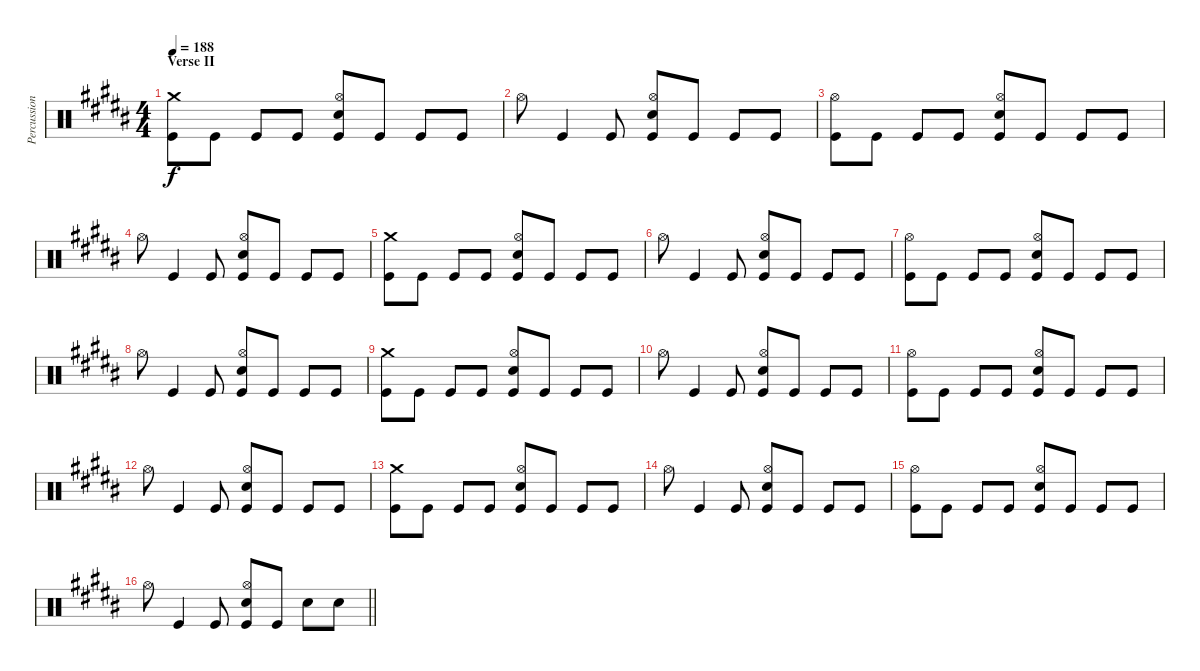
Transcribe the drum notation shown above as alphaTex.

\track ("Percussion" "Percussion") {instrument percussion}
\staff {score}
\articulation defaults
\ts (4 4)
\section ("" "Verse II")
\tempo 188
\clef neutral
\ks b
("Crash medium (hit)" "Kick (hit)").8{dy f} "Kick (hit)".8 "Kick (hit)".8 "Kick (hit)".8 ("Hi-Hat (open)" "Electric Snare (hit)" "Kick (hit)").8 "Kick (hit)".8 "Kick (hit)".8 "Kick (hit)".8 |
"Hi-Hat (open)".8 "Kick (hit)".4 "Kick (hit)".8 ("Hi-Hat (open)" "Electric Snare (hit)" "Kick (hit)").8 "Kick (hit)".8 "Kick (hit)".8 "Kick (hit)".8 |
("Hi-Hat (open)" "Kick (hit)").8 "Kick (hit)".8 "Kick (hit)".8 "Kick (hit)".8 ("Hi-Hat (open)" "Electric Snare (hit)" "Kick (hit)").8 "Kick (hit)".8 "Kick (hit)".8 "Kick (hit)".8 |
"Hi-Hat (open)".8 "Kick (hit)".4 "Kick (hit)".8 ("Hi-Hat (open)" "Electric Snare (hit)" "Kick (hit)").8 "Kick (hit)".8 "Kick (hit)".8 "Kick (hit)".8 |
("Crash medium (hit)" "Kick (hit)").8 "Kick (hit)".8 "Kick (hit)".8 "Kick (hit)".8 ("Hi-Hat (open)" "Electric Snare (hit)" "Kick (hit)").8 "Kick (hit)".8 "Kick (hit)".8 "Kick (hit)".8 |
"Hi-Hat (open)".8 "Kick (hit)".4 "Kick (hit)".8 ("Hi-Hat (open)" "Electric Snare (hit)" "Kick (hit)").8 "Kick (hit)".8 "Kick (hit)".8 "Kick (hit)".8 |
("Hi-Hat (open)" "Kick (hit)").8 "Kick (hit)".8 "Kick (hit)".8 "Kick (hit)".8 ("Hi-Hat (open)" "Electric Snare (hit)" "Kick (hit)").8 "Kick (hit)".8 "Kick (hit)".8 "Kick (hit)".8 |
"Hi-Hat (open)".8 "Kick (hit)".4 "Kick (hit)".8 ("Hi-Hat (open)" "Electric Snare (hit)" "Kick (hit)").8 "Kick (hit)".8 "Kick (hit)".8 "Kick (hit)".8 |
("Crash medium (hit)" "Kick (hit)").8 "Kick (hit)".8 "Kick (hit)".8 "Kick (hit)".8 ("Hi-Hat (open)" "Electric Snare (hit)" "Kick (hit)").8 "Kick (hit)".8 "Kick (hit)".8 "Kick (hit)".8 |
"Hi-Hat (open)".8 "Kick (hit)".4 "Kick (hit)".8 ("Hi-Hat (open)" "Electric Snare (hit)" "Kick (hit)").8 "Kick (hit)".8 "Kick (hit)".8 "Kick (hit)".8 |
("Hi-Hat (open)" "Kick (hit)").8 "Kick (hit)".8 "Kick (hit)".8 "Kick (hit)".8 ("Hi-Hat (open)" "Electric Snare (hit)" "Kick (hit)").8 "Kick (hit)".8 "Kick (hit)".8 "Kick (hit)".8 |
"Hi-Hat (open)".8 "Kick (hit)".4 "Kick (hit)".8 ("Hi-Hat (open)" "Electric Snare (hit)" "Kick (hit)").8 "Kick (hit)".8 "Kick (hit)".8 "Kick (hit)".8 |
("Crash medium (hit)" "Kick (hit)").8 "Kick (hit)".8 "Kick (hit)".8 "Kick (hit)".8 ("Hi-Hat (open)" "Electric Snare (hit)" "Kick (hit)").8 "Kick (hit)".8 "Kick (hit)".8 "Kick (hit)".8 |
"Hi-Hat (open)".8 "Kick (hit)".4 "Kick (hit)".8 ("Hi-Hat (open)" "Electric Snare (hit)" "Kick (hit)").8 "Kick (hit)".8 "Kick (hit)".8 "Kick (hit)".8 |
("Hi-Hat (open)" "Kick (hit)").8 "Kick (hit)".8 "Kick (hit)".8 "Kick (hit)".8 ("Hi-Hat (open)" "Electric Snare (hit)" "Kick (hit)").8 "Kick (hit)".8 "Kick (hit)".8 "Kick (hit)".8 |
\barLineRight lightlight "Hi-Hat (open)".8 "Kick (hit)".4 "Kick (hit)".8
("Hi-Hat (open)" "Electric Snare (hit)" "Kick (hit)").8 "Kick (hit)".8 "Electric Snare (hit)".8 "Electric Snare (hit)".8
